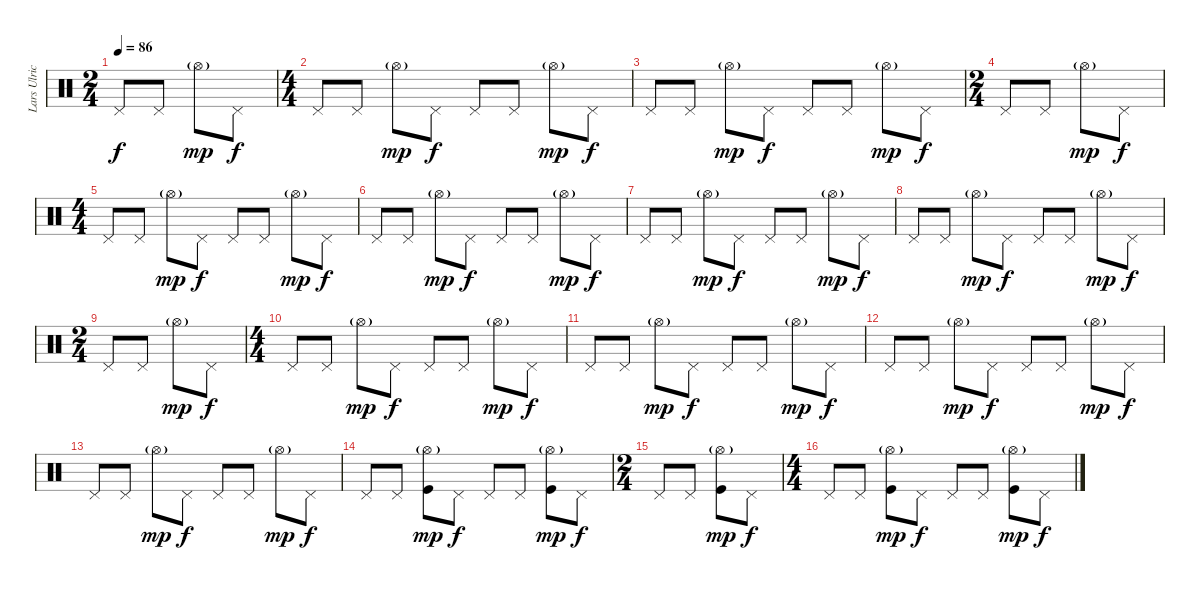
\track ("Lars Ulrich" "Lars Ulric") {instrument percussion}
\staff {score}
\articulation defaults
\ts (2 4)
\tempo 86
\clef neutral
\ks c "Pedal Hi-Hat (hit)".8{dy f} "Pedal Hi-Hat (hit)".8 "Hi-Hat (open)"{g}.8{dy mp} "Pedal Hi-Hat (hit)".8{dy f}
|
\ts (4 4)
"Pedal Hi-Hat (hit)".8 "Pedal Hi-Hat (hit)".8 "Hi-Hat (open)"{g}.8{dy mp} "Pedal Hi-Hat (hit)".8{dy f} "Pedal Hi-Hat (hit)".8 "Pedal Hi-Hat (hit)".8 "Hi-Hat (open)"{g}.8{dy mp} "Pedal Hi-Hat (hit)".8{dy f} |
"Pedal Hi-Hat (hit)".8 "Pedal Hi-Hat (hit)".8 "Hi-Hat (open)"{g}.8{dy mp} "Pedal Hi-Hat (hit)".8{dy f} "Pedal Hi-Hat (hit)".8 "Pedal Hi-Hat (hit)".8 "Hi-Hat (open)"{g}.8{dy mp} "Pedal Hi-Hat (hit)".8{dy f} |
\ts (2 4)
"Pedal Hi-Hat (hit)".8 "Pedal Hi-Hat (hit)".8 "Hi-Hat (open)"{g}.8{dy mp} "Pedal Hi-Hat (hit)".8{dy f} |
\ts (4 4)
"Pedal Hi-Hat (hit)".8 "Pedal Hi-Hat (hit)".8 "Hi-Hat (open)"{g}.8{dy mp} "Pedal Hi-Hat (hit)".8{dy f} "Pedal Hi-Hat (hit)".8 "Pedal Hi-Hat (hit)".8 "Hi-Hat (open)"{g}.8{dy mp} "Pedal Hi-Hat (hit)".8{dy f} |
"Pedal Hi-Hat (hit)".8 "Pedal Hi-Hat (hit)".8 "Hi-Hat (open)"{g}.8{dy mp} "Pedal Hi-Hat (hit)".8{dy f} "Pedal Hi-Hat (hit)".8 "Pedal Hi-Hat (hit)".8 "Hi-Hat (open)"{g}.8{dy mp} "Pedal Hi-Hat (hit)".8{dy f} |
"Pedal Hi-Hat (hit)".8 "Pedal Hi-Hat (hit)".8 "Hi-Hat (open)"{g}.8{dy mp} "Pedal Hi-Hat (hit)".8{dy f} "Pedal Hi-Hat (hit)".8 "Pedal Hi-Hat (hit)".8 "Hi-Hat (open)"{g}.8{dy mp} "Pedal Hi-Hat (hit)".8{dy f} |
"Pedal Hi-Hat (hit)".8 "Pedal Hi-Hat (hit)".8 "Hi-Hat (open)"{g}.8{dy mp} "Pedal Hi-Hat (hit)".8{dy f} "Pedal Hi-Hat (hit)".8 "Pedal Hi-Hat (hit)".8 "Hi-Hat (open)"{g}.8{dy mp} "Pedal Hi-Hat (hit)".8{dy f} |
\ts (2 4)
"Pedal Hi-Hat (hit)".8 "Pedal Hi-Hat (hit)".8 "Hi-Hat (open)"{g}.8{dy mp} "Pedal Hi-Hat (hit)".8{dy f} |
\ts (4 4)
"Pedal Hi-Hat (hit)".8 "Pedal Hi-Hat (hit)".8 "Hi-Hat (open)"{g}.8{dy mp} "Pedal Hi-Hat (hit)".8{dy f} "Pedal Hi-Hat (hit)".8 "Pedal Hi-Hat (hit)".8 "Hi-Hat (open)"{g}.8{dy mp} "Pedal Hi-Hat (hit)".8{dy f} |
"Pedal Hi-Hat (hit)".8 "Pedal Hi-Hat (hit)".8 "Hi-Hat (open)"{g}.8{dy mp} "Pedal Hi-Hat (hit)".8{dy f} "Pedal Hi-Hat (hit)".8 "Pedal Hi-Hat (hit)".8 "Hi-Hat (open)"{g}.8{dy mp} "Pedal Hi-Hat (hit)".8{dy f} |
"Pedal Hi-Hat (hit)".8 "Pedal Hi-Hat (hit)".8 "Hi-Hat (open)"{g}.8{dy mp} "Pedal Hi-Hat (hit)".8{dy f} "Pedal Hi-Hat (hit)".8 "Pedal Hi-Hat (hit)".8 "Hi-Hat (open)"{g}.8{dy mp} "Pedal Hi-Hat (hit)".8{dy f} |
"Pedal Hi-Hat (hit)".8 "Pedal Hi-Hat (hit)".8 "Hi-Hat (open)"{g}.8{dy mp} "Pedal Hi-Hat (hit)".8{dy f} "Pedal Hi-Hat (hit)".8 "Pedal Hi-Hat (hit)".8 "Hi-Hat (open)"{g}.8{dy mp} "Pedal Hi-Hat (hit)".8{dy f} |
"Pedal Hi-Hat (hit)".8 "Pedal Hi-Hat (hit)".8 ("Hi-Hat (open)"{g} "Kick (hit)").8{dy mp} "Pedal Hi-Hat (hit)".8{dy f} "Pedal Hi-Hat (hit)".8 "Pedal Hi-Hat (hit)".8 ("Hi-Hat (open)"{g} "Kick (hit)").8{dy mp} "Pedal Hi-Hat (hit)".8{dy f} |
\ts (2 4)
"Pedal Hi-Hat (hit)".8 "Pedal Hi-Hat (hit)".8 ("Hi-Hat (open)"{g} "Kick (hit)").8{dy mp} "Pedal Hi-Hat (hit)".8{dy f} |
\ts (4 4)
"Pedal Hi-Hat (hit)".8 "Pedal Hi-Hat (hit)".8 ("Hi-Hat (open)"{g} "Kick (hit)").8{dy mp} "Pedal Hi-Hat (hit)".8{dy f} "Pedal Hi-Hat (hit)".8 "Pedal Hi-Hat (hit)".8 ("Hi-Hat (open)"{g} "Kick (hit)").8{dy mp} "Pedal Hi-Hat (hit)".8{dy f}
